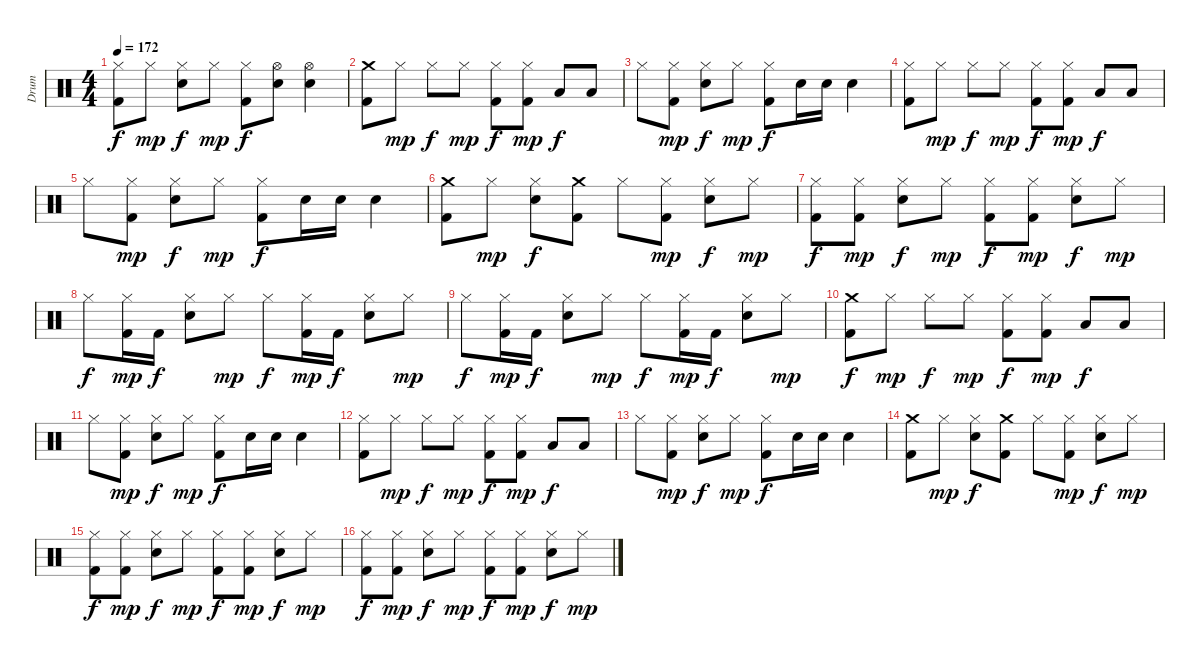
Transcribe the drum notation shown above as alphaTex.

\track ("Drum" "Drum") {instrument percussion}
\staff {score}
\articulation defaults
\ts (4 4)
\tempo 172
\clef neutral
\ks c
("Hi-Hat (closed)" "Kick (hit) 2").8{dy f} "Hi-Hat (closed)".8{dy mp} ("Hi-Hat (closed)" "Electric Snare (hit)").8{dy f} "Hi-Hat (closed)".8{dy mp} ("Hi-Hat (closed)" "Kick (hit) 2").8{dy f} ("Hi-Hat (open)" "Electric Snare (hit)").8 ("Hi-Hat (open)" "Electric Snare (hit)").4 |
("Crash medium (hit)" "Kick (hit) 2").8 "Hi-Hat (closed)".8{dy mp} "Hi-Hat (closed)".8{dy f} "Hi-Hat (closed)".8{dy mp} ("Hi-Hat (closed)" "Kick (hit) 2").8{dy f} ("Hi-Hat (closed)" "Kick (hit) 2").8{dy mp} "Low Tom (hit)".8{dy f} "Low Tom (hit)".8 |
"Hi-Hat (closed)".8 ("Hi-Hat (closed)" "Kick (hit) 2").8{dy mp} ("Hi-Hat (closed)" "Electric Snare (hit)").8{dy f} "Hi-Hat (closed)".8{dy mp} ("Hi-Hat (closed)" "Kick (hit) 2").8{dy f} "Electric Snare (hit)".16 "Electric Snare (hit)".16 "Electric Snare (hit)".4 |
("Hi-Hat (closed)" "Kick (hit) 2").8 "Hi-Hat (closed)".8{dy mp} "Hi-Hat (closed)".8{dy f} "Hi-Hat (closed)".8{dy mp} ("Hi-Hat (closed)" "Kick (hit) 2").8{dy f} ("Hi-Hat (closed)" "Kick (hit) 2").8{dy mp} "Low Tom (hit)".8{dy f} "Low Tom (hit)".8 |
"Hi-Hat (closed)".8 ("Hi-Hat (closed)" "Kick (hit) 2").8{dy mp} ("Hi-Hat (closed)" "Electric Snare (hit)").8{dy f} "Hi-Hat (closed)".8{dy mp} ("Hi-Hat (closed)" "Kick (hit) 2").8{dy f} "Electric Snare (hit)".16 "Electric Snare (hit)".16 "Electric Snare (hit)".4 |
("Crash medium (hit)" "Kick (hit) 2").8 "Hi-Hat (closed)".8{dy mp} ("Hi-Hat (closed)" "Electric Snare (hit)").8{dy f} ("Crash medium (hit)" "Kick (hit) 2").8 "Hi-Hat (closed)".8 ("Hi-Hat (closed)" "Kick (hit) 2").8{dy mp} ("Hi-Hat (closed)" "Electric Snare (hit)").8{dy f} "Hi-Hat (closed)".8{dy mp} |
("Hi-Hat (closed)" "Kick (hit) 2").8{dy f} ("Hi-Hat (closed)" "Kick (hit) 2").8{dy mp} ("Hi-Hat (closed)" "Electric Snare (hit)").8{dy f} "Hi-Hat (closed)".8{dy mp} ("Hi-Hat (closed)" "Kick (hit) 2").8{dy f} ("Hi-Hat (closed)" "Kick (hit) 2").8{dy mp} ("Hi-Hat (closed)" "Electric Snare (hit)").8{dy f} "Hi-Hat (closed)".8{dy mp} |
"Hi-Hat (closed)".8{dy f} ("Hi-Hat (closed)" "Kick (hit) 2").16{dy mp} "Kick (hit) 2".16{dy f} ("Hi-Hat (closed)" "Electric Snare (hit)").8 "Hi-Hat (closed)".8{dy mp} "Hi-Hat (closed)".8{dy f} ("Hi-Hat (closed)" "Kick (hit) 2").16{dy mp} "Kick (hit) 2".16{dy f} ("Hi-Hat (closed)" "Electric Snare (hit)").8 "Hi-Hat (closed)".8{dy mp} |
"Hi-Hat (closed)".8{dy f} ("Hi-Hat (closed)" "Kick (hit) 2").16{dy mp} "Kick (hit) 2".16{dy f} ("Hi-Hat (closed)" "Electric Snare (hit)").8 "Hi-Hat (closed)".8{dy mp} "Hi-Hat (closed)".8{dy f} ("Hi-Hat (closed)" "Kick (hit) 2").16{dy mp} "Kick (hit) 2".16{dy f} ("Hi-Hat (closed)" "Electric Snare (hit)").8 "Hi-Hat (closed)".8{dy mp} |
("Crash medium (hit)" "Kick (hit) 2").8{dy f} "Hi-Hat (closed)".8{dy mp} "Hi-Hat (closed)".8{dy f} "Hi-Hat (closed)".8{dy mp} ("Hi-Hat (closed)" "Kick (hit) 2").8{dy f} ("Hi-Hat (closed)" "Kick (hit) 2").8{dy mp} "Low Tom (hit)".8{dy f} "Low Tom (hit)".8 |
"Hi-Hat (closed)".8 ("Hi-Hat (closed)" "Kick (hit) 2").8{dy mp} ("Hi-Hat (closed)" "Electric Snare (hit)").8{dy f} "Hi-Hat (closed)".8{dy mp} ("Hi-Hat (closed)" "Kick (hit) 2").8{dy f} "Electric Snare (hit)".16 "Electric Snare (hit)".16 "Electric Snare (hit)".4 |
("Hi-Hat (closed)" "Kick (hit) 2").8 "Hi-Hat (closed)".8{dy mp} "Hi-Hat (closed)".8{dy f} "Hi-Hat (closed)".8{dy mp} ("Hi-Hat (closed)" "Kick (hit) 2").8{dy f} ("Hi-Hat (closed)" "Kick (hit) 2").8{dy mp} "Low Tom (hit)".8{dy f} "Low Tom (hit)".8 |
"Hi-Hat (closed)".8 ("Hi-Hat (closed)" "Kick (hit) 2").8{dy mp} ("Hi-Hat (closed)" "Electric Snare (hit)").8{dy f} "Hi-Hat (closed)".8{dy mp} ("Hi-Hat (closed)" "Kick (hit) 2").8{dy f} "Electric Snare (hit)".16 "Electric Snare (hit)".16 "Electric Snare (hit)".4 |
("Crash medium (hit)" "Kick (hit) 2").8 "Hi-Hat (closed)".8{dy mp} ("Hi-Hat (closed)" "Electric Snare (hit)").8{dy f} ("Crash medium (hit)" "Kick (hit) 2").8 "Hi-Hat (closed)".8 ("Hi-Hat (closed)" "Kick (hit) 2").8{dy mp} ("Hi-Hat (closed)" "Electric Snare (hit)").8{dy f} "Hi-Hat (closed)".8{dy mp} |
("Hi-Hat (closed)" "Kick (hit) 2").8{dy f} ("Hi-Hat (closed)" "Kick (hit) 2").8{dy mp} ("Hi-Hat (closed)" "Electric Snare (hit)").8{dy f} "Hi-Hat (closed)".8{dy mp} ("Hi-Hat (closed)" "Kick (hit) 2").8{dy f} ("Hi-Hat (closed)" "Kick (hit) 2").8{dy mp} ("Hi-Hat (closed)" "Electric Snare (hit)").8{dy f} "Hi-Hat (closed)".8{dy mp} |
("Hi-Hat (closed)" "Kick (hit) 2").8{dy f} ("Hi-Hat (closed)" "Kick (hit) 2").8{dy mp} ("Hi-Hat (closed)" "Electric Snare (hit)").8{dy f} "Hi-Hat (closed)".8{dy mp} ("Hi-Hat (closed)" "Kick (hit) 2").8{dy f} ("Hi-Hat (closed)" "Kick (hit) 2").8{dy mp} ("Hi-Hat (closed)" "Electric Snare (hit)").8{dy f} "Hi-Hat (closed)".8{dy mp}
